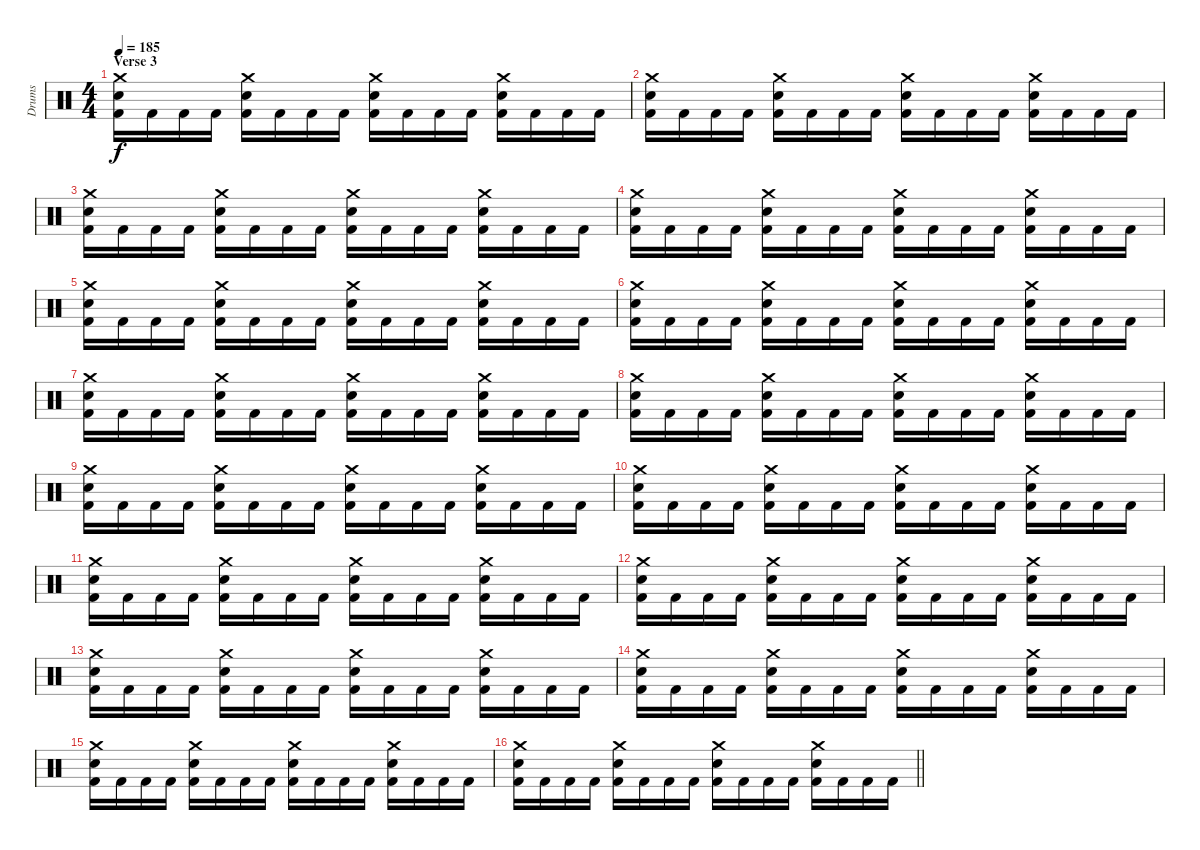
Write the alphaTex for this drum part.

\track ("Drums" "Drums") {instrument percussion}
\staff {score}
\articulation defaults
\ts (4 4)
\section ("" "Verse 3")
\tempo 185
\clef neutral
\ks c
("Crash medium (hit)" "Snare (hit) 2" "Kick (hit) 2").16{dy f} "Kick (hit) 2".16 "Kick (hit) 2".16 "Kick (hit) 2".16 ("Crash medium (hit)" "Snare (hit) 2" "Kick (hit) 2").16 "Kick (hit) 2".16 "Kick (hit) 2".16 "Kick (hit) 2".16 ("Crash medium (hit)" "Snare (hit) 2" "Kick (hit) 2").16 "Kick (hit) 2".16 "Kick (hit) 2".16 "Kick (hit) 2".16 ("Crash medium (hit)" "Snare (hit) 2" "Kick (hit) 2").16 "Kick (hit) 2".16 "Kick (hit) 2".16 "Kick (hit) 2".16 |
("Crash medium (hit)" "Snare (hit) 2" "Kick (hit) 2").16 "Kick (hit) 2".16 "Kick (hit) 2".16 "Kick (hit) 2".16 ("Crash medium (hit)" "Snare (hit) 2" "Kick (hit) 2").16 "Kick (hit) 2".16 "Kick (hit) 2".16 "Kick (hit) 2".16 ("Crash medium (hit)" "Snare (hit) 2" "Kick (hit) 2").16 "Kick (hit) 2".16 "Kick (hit) 2".16 "Kick (hit) 2".16 ("Crash medium (hit)" "Snare (hit) 2" "Kick (hit) 2").16 "Kick (hit) 2".16 "Kick (hit) 2".16 "Kick (hit) 2".16 |
("Crash medium (hit)" "Snare (hit) 2" "Kick (hit) 2").16 "Kick (hit) 2".16 "Kick (hit) 2".16 "Kick (hit) 2".16 ("Crash medium (hit)" "Snare (hit) 2" "Kick (hit) 2").16 "Kick (hit) 2".16 "Kick (hit) 2".16 "Kick (hit) 2".16 ("Crash medium (hit)" "Snare (hit) 2" "Kick (hit) 2").16 "Kick (hit) 2".16 "Kick (hit) 2".16 "Kick (hit) 2".16 ("Crash medium (hit)" "Snare (hit) 2" "Kick (hit) 2").16 "Kick (hit) 2".16 "Kick (hit) 2".16 "Kick (hit) 2".16 |
("Crash medium (hit)" "Snare (hit) 2" "Kick (hit) 2").16 "Kick (hit) 2".16 "Kick (hit) 2".16 "Kick (hit) 2".16 ("Crash medium (hit)" "Snare (hit) 2" "Kick (hit) 2").16 "Kick (hit) 2".16 "Kick (hit) 2".16 "Kick (hit) 2".16 ("Crash medium (hit)" "Snare (hit) 2" "Kick (hit) 2").16 "Kick (hit) 2".16 "Kick (hit) 2".16 "Kick (hit) 2".16 ("Crash medium (hit)" "Snare (hit) 2" "Kick (hit) 2").16 "Kick (hit) 2".16 "Kick (hit) 2".16 "Kick (hit) 2".16 |
("Crash medium (hit)" "Snare (hit) 2" "Kick (hit) 2").16 "Kick (hit) 2".16 "Kick (hit) 2".16 "Kick (hit) 2".16 ("Crash medium (hit)" "Snare (hit) 2" "Kick (hit) 2").16 "Kick (hit) 2".16 "Kick (hit) 2".16 "Kick (hit) 2".16 ("Crash medium (hit)" "Snare (hit) 2" "Kick (hit) 2").16 "Kick (hit) 2".16 "Kick (hit) 2".16 "Kick (hit) 2".16 ("Crash medium (hit)" "Snare (hit) 2" "Kick (hit) 2").16 "Kick (hit) 2".16 "Kick (hit) 2".16 "Kick (hit) 2".16 |
("Crash medium (hit)" "Snare (hit) 2" "Kick (hit) 2").16 "Kick (hit) 2".16 "Kick (hit) 2".16 "Kick (hit) 2".16 ("Crash medium (hit)" "Snare (hit) 2" "Kick (hit) 2").16 "Kick (hit) 2".16 "Kick (hit) 2".16 "Kick (hit) 2".16 ("Crash medium (hit)" "Snare (hit) 2" "Kick (hit) 2").16 "Kick (hit) 2".16 "Kick (hit) 2".16 "Kick (hit) 2".16 ("Crash medium (hit)" "Snare (hit) 2" "Kick (hit) 2").16 "Kick (hit) 2".16 "Kick (hit) 2".16 "Kick (hit) 2".16 |
("Crash medium (hit)" "Snare (hit) 2" "Kick (hit) 2").16 "Kick (hit) 2".16 "Kick (hit) 2".16 "Kick (hit) 2".16 ("Crash medium (hit)" "Snare (hit) 2" "Kick (hit) 2").16 "Kick (hit) 2".16 "Kick (hit) 2".16 "Kick (hit) 2".16 ("Crash medium (hit)" "Snare (hit) 2" "Kick (hit) 2").16 "Kick (hit) 2".16 "Kick (hit) 2".16 "Kick (hit) 2".16 ("Crash medium (hit)" "Snare (hit) 2" "Kick (hit) 2").16 "Kick (hit) 2".16 "Kick (hit) 2".16 "Kick (hit) 2".16 |
("Crash medium (hit)" "Snare (hit) 2" "Kick (hit) 2").16 "Kick (hit) 2".16 "Kick (hit) 2".16 "Kick (hit) 2".16 ("Crash medium (hit)" "Snare (hit) 2" "Kick (hit) 2").16 "Kick (hit) 2".16 "Kick (hit) 2".16 "Kick (hit) 2".16 ("Crash medium (hit)" "Snare (hit) 2" "Kick (hit) 2").16 "Kick (hit) 2".16 "Kick (hit) 2".16 "Kick (hit) 2".16 ("Crash medium (hit)" "Snare (hit) 2" "Kick (hit) 2").16 "Kick (hit) 2".16 "Kick (hit) 2".16 "Kick (hit) 2".16 |
("Crash medium (hit)" "Snare (hit) 2" "Kick (hit) 2").16 "Kick (hit) 2".16 "Kick (hit) 2".16 "Kick (hit) 2".16 ("Crash medium (hit)" "Snare (hit) 2" "Kick (hit) 2").16 "Kick (hit) 2".16 "Kick (hit) 2".16 "Kick (hit) 2".16 ("Crash medium (hit)" "Snare (hit) 2" "Kick (hit) 2").16 "Kick (hit) 2".16 "Kick (hit) 2".16 "Kick (hit) 2".16 ("Crash medium (hit)" "Snare (hit) 2" "Kick (hit) 2").16 "Kick (hit) 2".16 "Kick (hit) 2".16 "Kick (hit) 2".16 |
("Crash medium (hit)" "Snare (hit) 2" "Kick (hit) 2").16 "Kick (hit) 2".16 "Kick (hit) 2".16 "Kick (hit) 2".16 ("Crash medium (hit)" "Snare (hit) 2" "Kick (hit) 2").16 "Kick (hit) 2".16 "Kick (hit) 2".16 "Kick (hit) 2".16 ("Crash medium (hit)" "Snare (hit) 2" "Kick (hit) 2").16 "Kick (hit) 2".16 "Kick (hit) 2".16 "Kick (hit) 2".16 ("Crash medium (hit)" "Snare (hit) 2" "Kick (hit) 2").16 "Kick (hit) 2".16 "Kick (hit) 2".16 "Kick (hit) 2".16 |
("Crash medium (hit)" "Snare (hit) 2" "Kick (hit) 2").16 "Kick (hit) 2".16 "Kick (hit) 2".16 "Kick (hit) 2".16 ("Crash medium (hit)" "Snare (hit) 2" "Kick (hit) 2").16 "Kick (hit) 2".16 "Kick (hit) 2".16 "Kick (hit) 2".16 ("Crash medium (hit)" "Snare (hit) 2" "Kick (hit) 2").16 "Kick (hit) 2".16 "Kick (hit) 2".16 "Kick (hit) 2".16 ("Crash medium (hit)" "Snare (hit) 2" "Kick (hit) 2").16 "Kick (hit) 2".16 "Kick (hit) 2".16 "Kick (hit) 2".16 |
("Crash medium (hit)" "Snare (hit) 2" "Kick (hit) 2").16 "Kick (hit) 2".16 "Kick (hit) 2".16 "Kick (hit) 2".16 ("Crash medium (hit)" "Snare (hit) 2" "Kick (hit) 2").16 "Kick (hit) 2".16 "Kick (hit) 2".16 "Kick (hit) 2".16 ("Crash medium (hit)" "Snare (hit) 2" "Kick (hit) 2").16 "Kick (hit) 2".16 "Kick (hit) 2".16 "Kick (hit) 2".16 ("Crash medium (hit)" "Snare (hit) 2" "Kick (hit) 2").16 "Kick (hit) 2".16 "Kick (hit) 2".16 "Kick (hit) 2".16 |
("Crash medium (hit)" "Snare (hit) 2" "Kick (hit) 2").16 "Kick (hit) 2".16 "Kick (hit) 2".16 "Kick (hit) 2".16 ("Crash medium (hit)" "Snare (hit) 2" "Kick (hit) 2").16 "Kick (hit) 2".16 "Kick (hit) 2".16 "Kick (hit) 2".16 ("Crash medium (hit)" "Snare (hit) 2" "Kick (hit) 2").16 "Kick (hit) 2".16 "Kick (hit) 2".16 "Kick (hit) 2".16 ("Crash medium (hit)" "Snare (hit) 2" "Kick (hit) 2").16 "Kick (hit) 2".16 "Kick (hit) 2".16 "Kick (hit) 2".16 |
("Crash medium (hit)" "Snare (hit) 2" "Kick (hit) 2").16 "Kick (hit) 2".16 "Kick (hit) 2".16 "Kick (hit) 2".16 ("Crash medium (hit)" "Snare (hit) 2" "Kick (hit) 2").16 "Kick (hit) 2".16 "Kick (hit) 2".16 "Kick (hit) 2".16 ("Crash medium (hit)" "Snare (hit) 2" "Kick (hit) 2").16 "Kick (hit) 2".16 "Kick (hit) 2".16 "Kick (hit) 2".16 ("Crash medium (hit)" "Snare (hit) 2" "Kick (hit) 2").16 "Kick (hit) 2".16 "Kick (hit) 2".16 "Kick (hit) 2".16 |
("Crash medium (hit)" "Snare (hit) 2" "Kick (hit) 2").16 "Kick (hit) 2".16 "Kick (hit) 2".16 "Kick (hit) 2".16 ("Crash medium (hit)" "Snare (hit) 2" "Kick (hit) 2").16 "Kick (hit) 2".16 "Kick (hit) 2".16 "Kick (hit) 2".16 ("Crash medium (hit)" "Snare (hit) 2" "Kick (hit) 2").16 "Kick (hit) 2".16 "Kick (hit) 2".16 "Kick (hit) 2".16 ("Crash medium (hit)" "Snare (hit) 2" "Kick (hit) 2").16 "Kick (hit) 2".16 "Kick (hit) 2".16 "Kick (hit) 2".16 |
\barLineRight lightlight
("Crash medium (hit)" "Snare (hit) 2" "Kick (hit) 2").16 "Kick (hit) 2".16 "Kick (hit) 2".16 "Kick (hit) 2".16 ("Crash medium (hit)" "Snare (hit) 2" "Kick (hit) 2").16 "Kick (hit) 2".16 "Kick (hit) 2".16 "Kick (hit) 2".16 ("Crash medium (hit)" "Snare (hit) 2" "Kick (hit) 2").16 "Kick (hit) 2".16 "Kick (hit) 2".16 "Kick (hit) 2".16 ("Crash medium (hit)" "Snare (hit) 2" "Kick (hit) 2").16 "Kick (hit) 2".16 "Kick (hit) 2".16 "Kick (hit) 2".16
